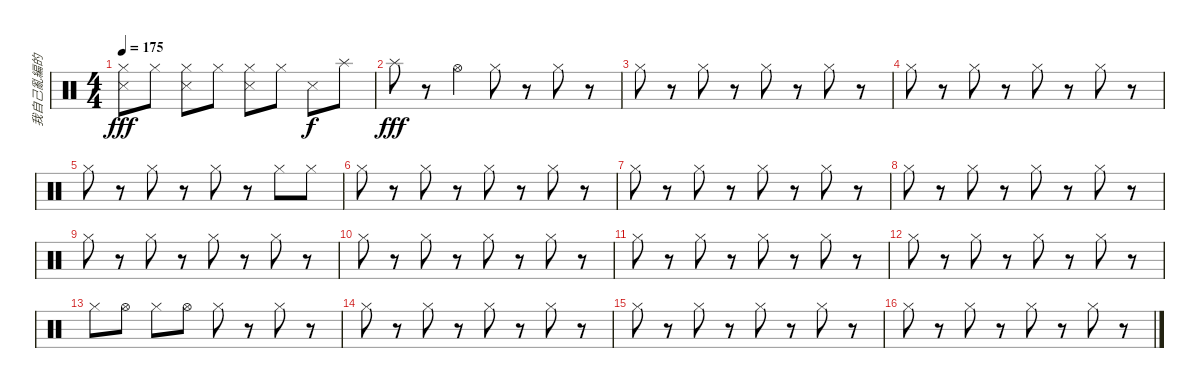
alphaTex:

\track ("我自己亂編的" "我自己亂編的") {instrument percussion}
\staff {score}
\articulation defaults
\ts (4 4)
\tempo 175
\clef neutral
\ks c
("Snare (side stick) 3" "Hi-Hat (closed)").8{dy fff} "Hi-Hat (closed)".8 ("Hi-Hat (closed)" "Snare (side stick) 3").8 "Hi-Hat (closed)".8 ("Hi-Hat (closed)" "Snare (side stick) 3").8 "Hi-Hat (closed)".8 "Snare (side stick) 3".8{dy f} "Splash (hit)".8 |
"Splash (hit)".8{dy fff} r.8 "Hi-Hat (open)".4 "Hi-Hat (closed)".8 r.8 "Hi-Hat (closed)".8 r.8 |
"Hi-Hat (closed)".8 r.8 "Hi-Hat (closed)".8 r.8 "Hi-Hat (closed)".8 r.8 "Hi-Hat (closed)".8 r.8 |
"Hi-Hat (closed)".8 r.8 "Hi-Hat (closed)".8 r.8 "Hi-Hat (closed)".8 r.8 "Hi-Hat (closed)".8 r.8 |
"Hi-Hat (closed)".8 r.8 "Hi-Hat (closed)".8 r.8 "Hi-Hat (closed)".8 r.8 "Hi-Hat (closed)".8 "Hi-Hat (closed)".8 |
"Hi-Hat (closed)".8 r.8 "Hi-Hat (closed)".8 r.8 "Hi-Hat (closed)".8 r.8 "Hi-Hat (closed)".8 r.8 |
"Hi-Hat (closed)".8 r.8 "Hi-Hat (closed)".8 r.8 "Hi-Hat (closed)".8 r.8 "Hi-Hat (closed)".8 r.8 |
"Hi-Hat (closed)".8 r.8 "Hi-Hat (closed)".8 r.8 "Hi-Hat (closed)".8 r.8 "Hi-Hat (closed)".8 r.8 |
"Hi-Hat (closed)".8 r.8 "Hi-Hat (closed)".8 r.8 "Hi-Hat (closed)".8 r.8 "Hi-Hat (closed)".8 r.8 |
"Hi-Hat (closed)".8 r.8 "Hi-Hat (closed)".8 r.8 "Hi-Hat (closed)".8 r.8 "Hi-Hat (closed)".8 r.8 |
"Hi-Hat (closed)".8 r.8 "Hi-Hat (closed)".8 r.8 "Hi-Hat (closed)".8 r.8 "Hi-Hat (closed)".8 r.8 |
"Hi-Hat (closed)".8 r.8 "Hi-Hat (closed)".8 r.8 "Hi-Hat (closed)".8 r.8 "Hi-Hat (closed)".8 r.8 |
"Hi-Hat (closed)".8 "Hi-Hat (open)".8 "Hi-Hat (closed)".8 "Hi-Hat (open)".8 "Hi-Hat (closed)".8 r.8 "Hi-Hat (closed)".8 r.8 |
"Hi-Hat (closed)".8 r.8 "Hi-Hat (closed)".8 r.8 "Hi-Hat (closed)".8 r.8 "Hi-Hat (closed)".8 r.8 |
"Hi-Hat (closed)".8 r.8 "Hi-Hat (closed)".8 r.8 "Hi-Hat (closed)".8 r.8 "Hi-Hat (closed)".8 r.8 |
"Hi-Hat (closed)".8 r.8 "Hi-Hat (closed)".8 r.8 "Hi-Hat (closed)".8 r.8 "Hi-Hat (closed)".8 r.8
